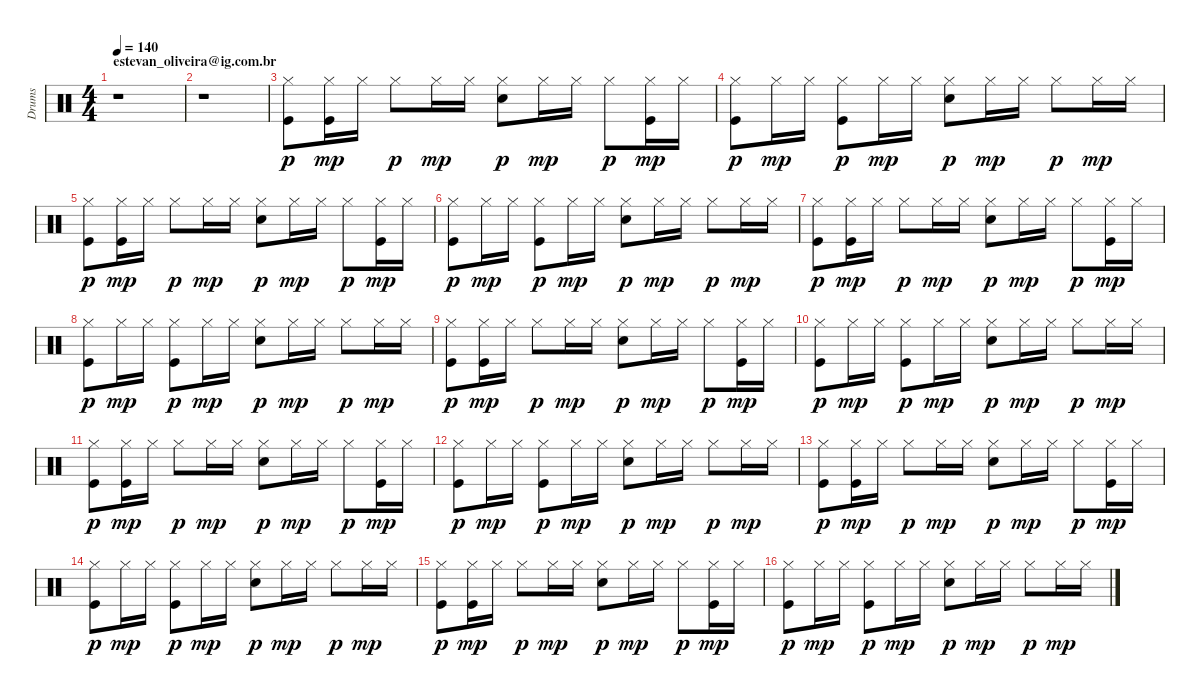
\track ("Drums" "Drums") {instrument percussion}
\staff {score}
\articulation defaults
\ts (4 4)
\section ("" "estevan_oliveira@ig.com.br")
\tempo 140
\clef neutral
\ks c
r.1{dy p} |
r.1 |
("Kick (hit)" "Hi-Hat (closed)").8 ("Kick (hit)" "Hi-Hat (closed)").16{dy mp} "Hi-Hat (closed)".16 "Hi-Hat (closed)".8{dy p} "Hi-Hat (closed)".16{dy mp} "Hi-Hat (closed)".16 ("Snare (hit) 2" "Hi-Hat (closed)").8{dy p} "Hi-Hat (closed)".16{dy mp} "Hi-Hat (closed)".16 "Hi-Hat (closed)".8{dy p} ("Kick (hit)" "Hi-Hat (closed)").16{dy mp} "Hi-Hat (closed)".16 |
("Kick (hit)" "Hi-Hat (closed)").8{dy p} "Hi-Hat (closed)".16{dy mp} "Hi-Hat (closed)".16 ("Kick (hit)" "Hi-Hat (closed)").8{dy p} "Hi-Hat (closed)".16{dy mp} "Hi-Hat (closed)".16 ("Snare (hit) 2" "Hi-Hat (closed)").8{dy p} "Hi-Hat (closed)".16{dy mp} "Hi-Hat (closed)".16 "Hi-Hat (closed)".8{dy p} "Hi-Hat (closed)".16{dy mp} "Hi-Hat (closed)".16 |
("Kick (hit)" "Hi-Hat (closed)").8{dy p} ("Kick (hit)" "Hi-Hat (closed)").16{dy mp} "Hi-Hat (closed)".16 "Hi-Hat (closed)".8{dy p} "Hi-Hat (closed)".16{dy mp} "Hi-Hat (closed)".16 ("Snare (hit) 2" "Hi-Hat (closed)").8{dy p} "Hi-Hat (closed)".16{dy mp} "Hi-Hat (closed)".16 "Hi-Hat (closed)".8{dy p} ("Kick (hit)" "Hi-Hat (closed)").16{dy mp} "Hi-Hat (closed)".16 |
("Kick (hit)" "Hi-Hat (closed)").8{dy p} "Hi-Hat (closed)".16{dy mp} "Hi-Hat (closed)".16 ("Kick (hit)" "Hi-Hat (closed)").8{dy p} "Hi-Hat (closed)".16{dy mp} "Hi-Hat (closed)".16 ("Snare (hit) 2" "Hi-Hat (closed)").8{dy p} "Hi-Hat (closed)".16{dy mp} "Hi-Hat (closed)".16 "Hi-Hat (closed)".8{dy p} "Hi-Hat (closed)".16{dy mp} "Hi-Hat (closed)".16 |
("Kick (hit)" "Hi-Hat (closed)").8{dy p} ("Kick (hit)" "Hi-Hat (closed)").16{dy mp} "Hi-Hat (closed)".16 "Hi-Hat (closed)".8{dy p} "Hi-Hat (closed)".16{dy mp} "Hi-Hat (closed)".16 ("Snare (hit) 2" "Hi-Hat (closed)").8{dy p} "Hi-Hat (closed)".16{dy mp} "Hi-Hat (closed)".16 "Hi-Hat (closed)".8{dy p} ("Kick (hit)" "Hi-Hat (closed)").16{dy mp} "Hi-Hat (closed)".16 |
("Kick (hit)" "Hi-Hat (closed)").8{dy p} "Hi-Hat (closed)".16{dy mp} "Hi-Hat (closed)".16 ("Kick (hit)" "Hi-Hat (closed)").8{dy p} "Hi-Hat (closed)".16{dy mp} "Hi-Hat (closed)".16 ("Snare (hit) 2" "Hi-Hat (closed)").8{dy p} "Hi-Hat (closed)".16{dy mp} "Hi-Hat (closed)".16 "Hi-Hat (closed)".8{dy p} "Hi-Hat (closed)".16{dy mp} "Hi-Hat (closed)".16 |
("Kick (hit)" "Hi-Hat (closed)").8{dy p} ("Kick (hit)" "Hi-Hat (closed)").16{dy mp} "Hi-Hat (closed)".16 "Hi-Hat (closed)".8{dy p} "Hi-Hat (closed)".16{dy mp} "Hi-Hat (closed)".16 ("Snare (hit) 2" "Hi-Hat (closed)").8{dy p} "Hi-Hat (closed)".16{dy mp} "Hi-Hat (closed)".16 "Hi-Hat (closed)".8{dy p} ("Kick (hit)" "Hi-Hat (closed)").16{dy mp} "Hi-Hat (closed)".16 |
("Kick (hit)" "Hi-Hat (closed)").8{dy p} "Hi-Hat (closed)".16{dy mp} "Hi-Hat (closed)".16 ("Kick (hit)" "Hi-Hat (closed)").8{dy p} "Hi-Hat (closed)".16{dy mp} "Hi-Hat (closed)".16 ("Snare (hit) 2" "Hi-Hat (closed)").8{dy p} "Hi-Hat (closed)".16{dy mp} "Hi-Hat (closed)".16 "Hi-Hat (closed)".8{dy p} "Hi-Hat (closed)".16{dy mp} "Hi-Hat (closed)".16 |
("Kick (hit)" "Hi-Hat (closed)").8{dy p} ("Kick (hit)" "Hi-Hat (closed)").16{dy mp} "Hi-Hat (closed)".16 "Hi-Hat (closed)".8{dy p} "Hi-Hat (closed)".16{dy mp} "Hi-Hat (closed)".16 ("Snare (hit) 2" "Hi-Hat (closed)").8{dy p} "Hi-Hat (closed)".16{dy mp} "Hi-Hat (closed)".16 "Hi-Hat (closed)".8{dy p} ("Kick (hit)" "Hi-Hat (closed)").16{dy mp} "Hi-Hat (closed)".16 |
("Kick (hit)" "Hi-Hat (closed)").8{dy p} "Hi-Hat (closed)".16{dy mp} "Hi-Hat (closed)".16 ("Kick (hit)" "Hi-Hat (closed)").8{dy p} "Hi-Hat (closed)".16{dy mp} "Hi-Hat (closed)".16 ("Snare (hit) 2" "Hi-Hat (closed)").8{dy p} "Hi-Hat (closed)".16{dy mp} "Hi-Hat (closed)".16 "Hi-Hat (closed)".8{dy p} "Hi-Hat (closed)".16{dy mp} "Hi-Hat (closed)".16 |
("Kick (hit)" "Hi-Hat (closed)").8{dy p} ("Kick (hit)" "Hi-Hat (closed)").16{dy mp} "Hi-Hat (closed)".16 "Hi-Hat (closed)".8{dy p} "Hi-Hat (closed)".16{dy mp} "Hi-Hat (closed)".16 ("Snare (hit) 2" "Hi-Hat (closed)").8{dy p} "Hi-Hat (closed)".16{dy mp} "Hi-Hat (closed)".16 "Hi-Hat (closed)".8{dy p} ("Kick (hit)" "Hi-Hat (closed)").16{dy mp} "Hi-Hat (closed)".16 |
("Kick (hit)" "Hi-Hat (closed)").8{dy p} "Hi-Hat (closed)".16{dy mp} "Hi-Hat (closed)".16 ("Kick (hit)" "Hi-Hat (closed)").8{dy p} "Hi-Hat (closed)".16{dy mp} "Hi-Hat (closed)".16 ("Snare (hit) 2" "Hi-Hat (closed)").8{dy p} "Hi-Hat (closed)".16{dy mp} "Hi-Hat (closed)".16 "Hi-Hat (closed)".8{dy p} "Hi-Hat (closed)".16{dy mp} "Hi-Hat (closed)".16 |
("Kick (hit)" "Hi-Hat (closed)").8{dy p} ("Kick (hit)" "Hi-Hat (closed)").16{dy mp} "Hi-Hat (closed)".16 "Hi-Hat (closed)".8{dy p} "Hi-Hat (closed)".16{dy mp} "Hi-Hat (closed)".16 ("Snare (hit) 2" "Hi-Hat (closed)").8{dy p} "Hi-Hat (closed)".16{dy mp} "Hi-Hat (closed)".16 "Hi-Hat (closed)".8{dy p} ("Kick (hit)" "Hi-Hat (closed)").16{dy mp} "Hi-Hat (closed)".16 |
("Kick (hit)" "Hi-Hat (closed)").8{dy p} "Hi-Hat (closed)".16{dy mp} "Hi-Hat (closed)".16 ("Kick (hit)" "Hi-Hat (closed)").8{dy p} "Hi-Hat (closed)".16{dy mp} "Hi-Hat (closed)".16 ("Snare (hit) 2" "Hi-Hat (closed)").8{dy p} "Hi-Hat (closed)".16{dy mp} "Hi-Hat (closed)".16 "Hi-Hat (closed)".8{dy p} "Hi-Hat (closed)".16{dy mp} "Hi-Hat (closed)".16
